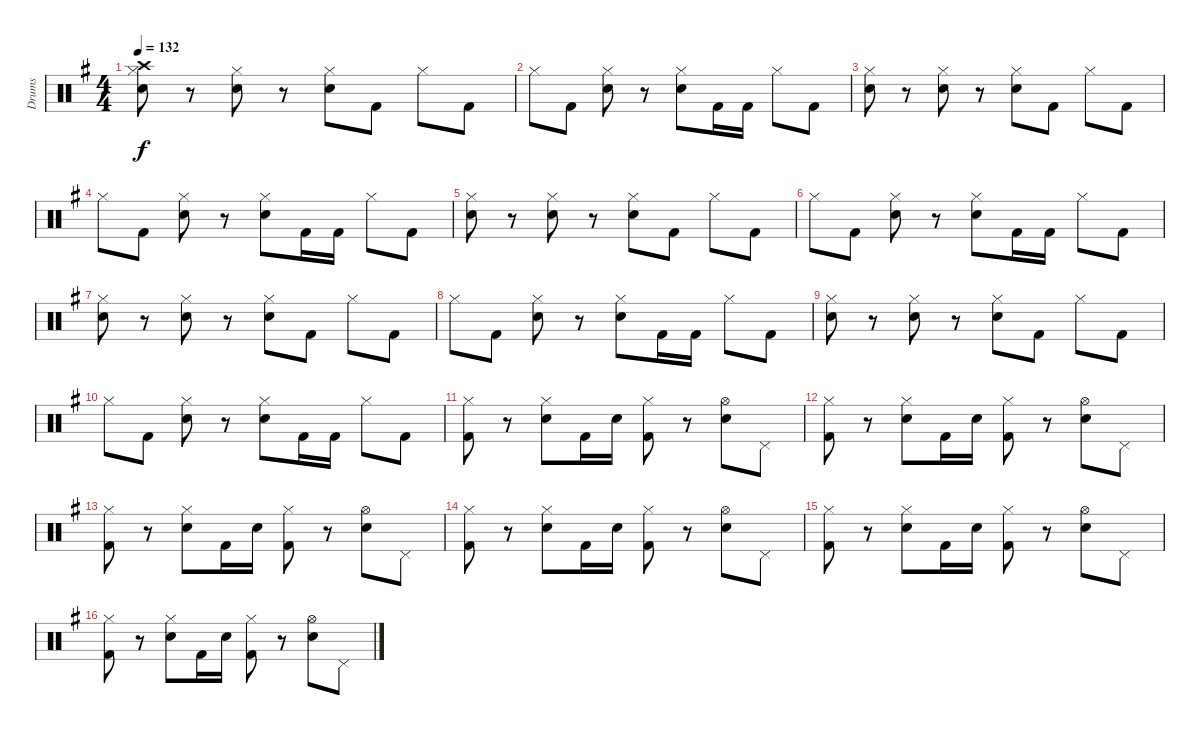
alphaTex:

\track ("Drums" "Drums") {instrument percussion}
\staff {score}
\articulation defaults
\ts (4 4)
\tempo 132
\clef neutral
\ks g
("Hi-Hat (closed)" "Snare (hit) 2" "Crash high (hit)").8{dy f} r.8 ("Hi-Hat (closed)" "Snare (hit) 2").8 r.8 ("Hi-Hat (closed)" "Snare (hit) 2").8 "Kick (hit) 2".8 "Hi-Hat (closed)".8 "Kick (hit) 2".8 |
"Hi-Hat (closed)".8 "Kick (hit) 2".8 ("Hi-Hat (closed)" "Snare (hit) 2").8 r.8 ("Hi-Hat (closed)" "Snare (hit) 2").8 "Kick (hit) 2".16 "Kick (hit) 2".16 "Hi-Hat (closed)".8 "Kick (hit) 2".8 |
("Hi-Hat (closed)" "Snare (hit) 2").8 r.8 ("Hi-Hat (closed)" "Snare (hit) 2").8 r.8 ("Hi-Hat (closed)" "Snare (hit) 2").8 "Kick (hit) 2".8 "Hi-Hat (closed)".8 "Kick (hit) 2".8 |
"Hi-Hat (closed)".8 "Kick (hit) 2".8 ("Hi-Hat (closed)" "Snare (hit) 2").8 r.8 ("Hi-Hat (closed)" "Snare (hit) 2").8 "Kick (hit) 2".16 "Kick (hit) 2".16 "Hi-Hat (closed)".8 "Kick (hit) 2".8 |
("Hi-Hat (closed)" "Snare (hit) 2").8 r.8 ("Hi-Hat (closed)" "Snare (hit) 2").8 r.8 ("Hi-Hat (closed)" "Snare (hit) 2").8 "Kick (hit) 2".8 "Hi-Hat (closed)".8 "Kick (hit) 2".8 |
"Hi-Hat (closed)".8 "Kick (hit) 2".8 ("Hi-Hat (closed)" "Snare (hit) 2").8 r.8 ("Hi-Hat (closed)" "Snare (hit) 2").8 "Kick (hit) 2".16 "Kick (hit) 2".16 "Hi-Hat (closed)".8 "Kick (hit) 2".8 |
("Hi-Hat (closed)" "Snare (hit) 2").8 r.8 ("Hi-Hat (closed)" "Snare (hit) 2").8 r.8 ("Hi-Hat (closed)" "Snare (hit) 2").8 "Kick (hit) 2".8 "Hi-Hat (closed)".8 "Kick (hit) 2".8 |
"Hi-Hat (closed)".8 "Kick (hit) 2".8 ("Hi-Hat (closed)" "Snare (hit) 2").8 r.8 ("Hi-Hat (closed)" "Snare (hit) 2").8 "Kick (hit) 2".16 "Kick (hit) 2".16 "Hi-Hat (closed)".8 "Kick (hit) 2".8 |
("Hi-Hat (closed)" "Snare (hit) 2").8 r.8 ("Hi-Hat (closed)" "Snare (hit) 2").8 r.8 ("Hi-Hat (closed)" "Snare (hit) 2").8 "Kick (hit) 2".8 "Hi-Hat (closed)".8 "Kick (hit) 2".8 |
"Hi-Hat (closed)".8 "Kick (hit) 2".8 ("Hi-Hat (closed)" "Snare (hit) 2").8 r.8 ("Hi-Hat (closed)" "Snare (hit) 2").8 "Kick (hit) 2".16 "Kick (hit) 2".16 "Hi-Hat (closed)".8 "Kick (hit) 2".8 |
("Hi-Hat (closed)" "Kick (hit) 2").8 r.8 ("Hi-Hat (closed)" "Snare (hit) 2").8 "Kick (hit) 2".16 "Snare (hit) 2".16 ("Hi-Hat (closed)" "Kick (hit) 2").8 r.8 ("Hi-Hat (open)" "Snare (hit) 2").8 "Pedal Hi-Hat (hit)".8 |
("Hi-Hat (closed)" "Kick (hit) 2").8 r.8 ("Hi-Hat (closed)" "Snare (hit) 2").8 "Kick (hit) 2".16 "Snare (hit) 2".16 ("Hi-Hat (closed)" "Kick (hit) 2").8 r.8 ("Hi-Hat (open)" "Snare (hit) 2").8 "Pedal Hi-Hat (hit)".8 |
("Hi-Hat (closed)" "Kick (hit) 2").8 r.8 ("Hi-Hat (closed)" "Snare (hit) 2").8 "Kick (hit) 2".16 "Snare (hit) 2".16 ("Hi-Hat (closed)" "Kick (hit) 2").8 r.8 ("Hi-Hat (open)" "Snare (hit) 2").8 "Pedal Hi-Hat (hit)".8 |
("Hi-Hat (closed)" "Kick (hit) 2").8 r.8 ("Hi-Hat (closed)" "Snare (hit) 2").8 "Kick (hit) 2".16 "Snare (hit) 2".16 ("Hi-Hat (closed)" "Kick (hit) 2").8 r.8 ("Hi-Hat (open)" "Snare (hit) 2").8 "Pedal Hi-Hat (hit)".8 |
("Hi-Hat (closed)" "Kick (hit) 2").8 r.8 ("Hi-Hat (closed)" "Snare (hit) 2").8 "Kick (hit) 2".16 "Snare (hit) 2".16 ("Hi-Hat (closed)" "Kick (hit) 2").8 r.8 ("Hi-Hat (open)" "Snare (hit) 2").8 "Pedal Hi-Hat (hit)".8 |
("Hi-Hat (closed)" "Kick (hit) 2").8 r.8 ("Hi-Hat (closed)" "Snare (hit) 2").8 "Kick (hit) 2".16 "Snare (hit) 2".16 ("Hi-Hat (closed)" "Kick (hit) 2").8 r.8 ("Hi-Hat (open)" "Snare (hit) 2").8 "Pedal Hi-Hat (hit)".8
